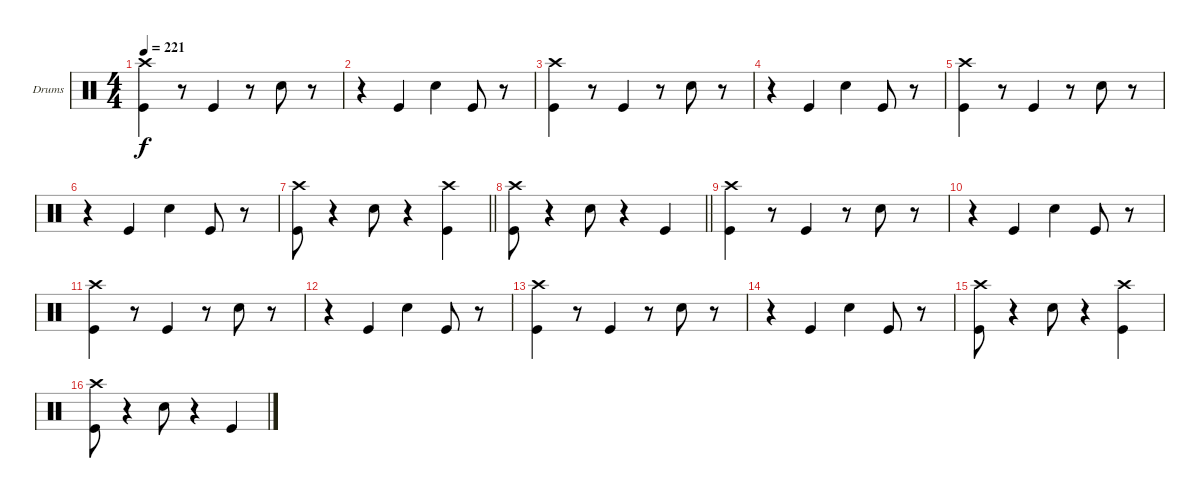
\bracketExtendMode groupsimilarinstruments
\firstSystemTrackNameOrientation horizontal
\otherSystemsTrackNameOrientation horizontal
\track ("Drumkit" "Drums") {instrument percussion}
\staff {score}
\articulation defaults
\ts (4 4)
\tempo 221
\clef neutral
\ks c
("Crash high (hit)" "Kick (hit)").4{dy f} r.8 "Kick (hit)".4 r.8 "Snare (hit) 2".8 r.8 |
r.4 "Kick (hit)".4 "Snare (hit) 2".4 "Kick (hit)".8 r.8 |
("Crash high (hit)" "Kick (hit)").4 r.8 "Kick (hit)".4 r.8 "Snare (hit) 2".8 r.8 |
r.4 "Kick (hit)".4 "Snare (hit) 2".4 "Kick (hit)".8 r.8 |
("Crash high (hit)" "Kick (hit)").4 r.8 "Kick (hit)".4 r.8 "Snare (hit) 2".8 r.8 |
r.4 "Kick (hit)".4 "Snare (hit) 2".4 "Kick (hit)".8 r.8 |
\barLineRight lightlight
("Crash high (hit)" "Kick (hit)").8 r.4 "Snare (hit) 2".8 r.4 ("Crash high (hit)" "Kick (hit)").4 |
\barLineRight lightlight
("Crash high (hit)" "Kick (hit)").8 r.4 "Snare (hit) 2".8 r.4 "Kick (hit)".4 |
("Crash high (hit)" "Kick (hit)").4 r.8 "Kick (hit)".4 r.8 "Snare (hit) 2".8 r.8 |
r.4 "Kick (hit)".4 "Snare (hit) 2".4 "Kick (hit)".8 r.8 |
("Crash high (hit)" "Kick (hit)").4 r.8 "Kick (hit)".4 r.8 "Snare (hit) 2".8 r.8 |
r.4 "Kick (hit)".4 "Snare (hit) 2".4 "Kick (hit)".8 r.8 |
("Crash high (hit)" "Kick (hit)").4 r.8 "Kick (hit)".4 r.8 "Snare (hit) 2".8 r.8 |
r.4 "Kick (hit)".4 "Snare (hit) 2".4 "Kick (hit)".8 r.8 |
("Crash high (hit)" "Kick (hit)").8 r.4 "Snare (hit) 2".8 r.4 ("Crash high (hit)" "Kick (hit)").4 |
("Crash high (hit)" "Kick (hit)").8 r.4 "Snare (hit) 2".8 r.4 "Kick (hit)".4
